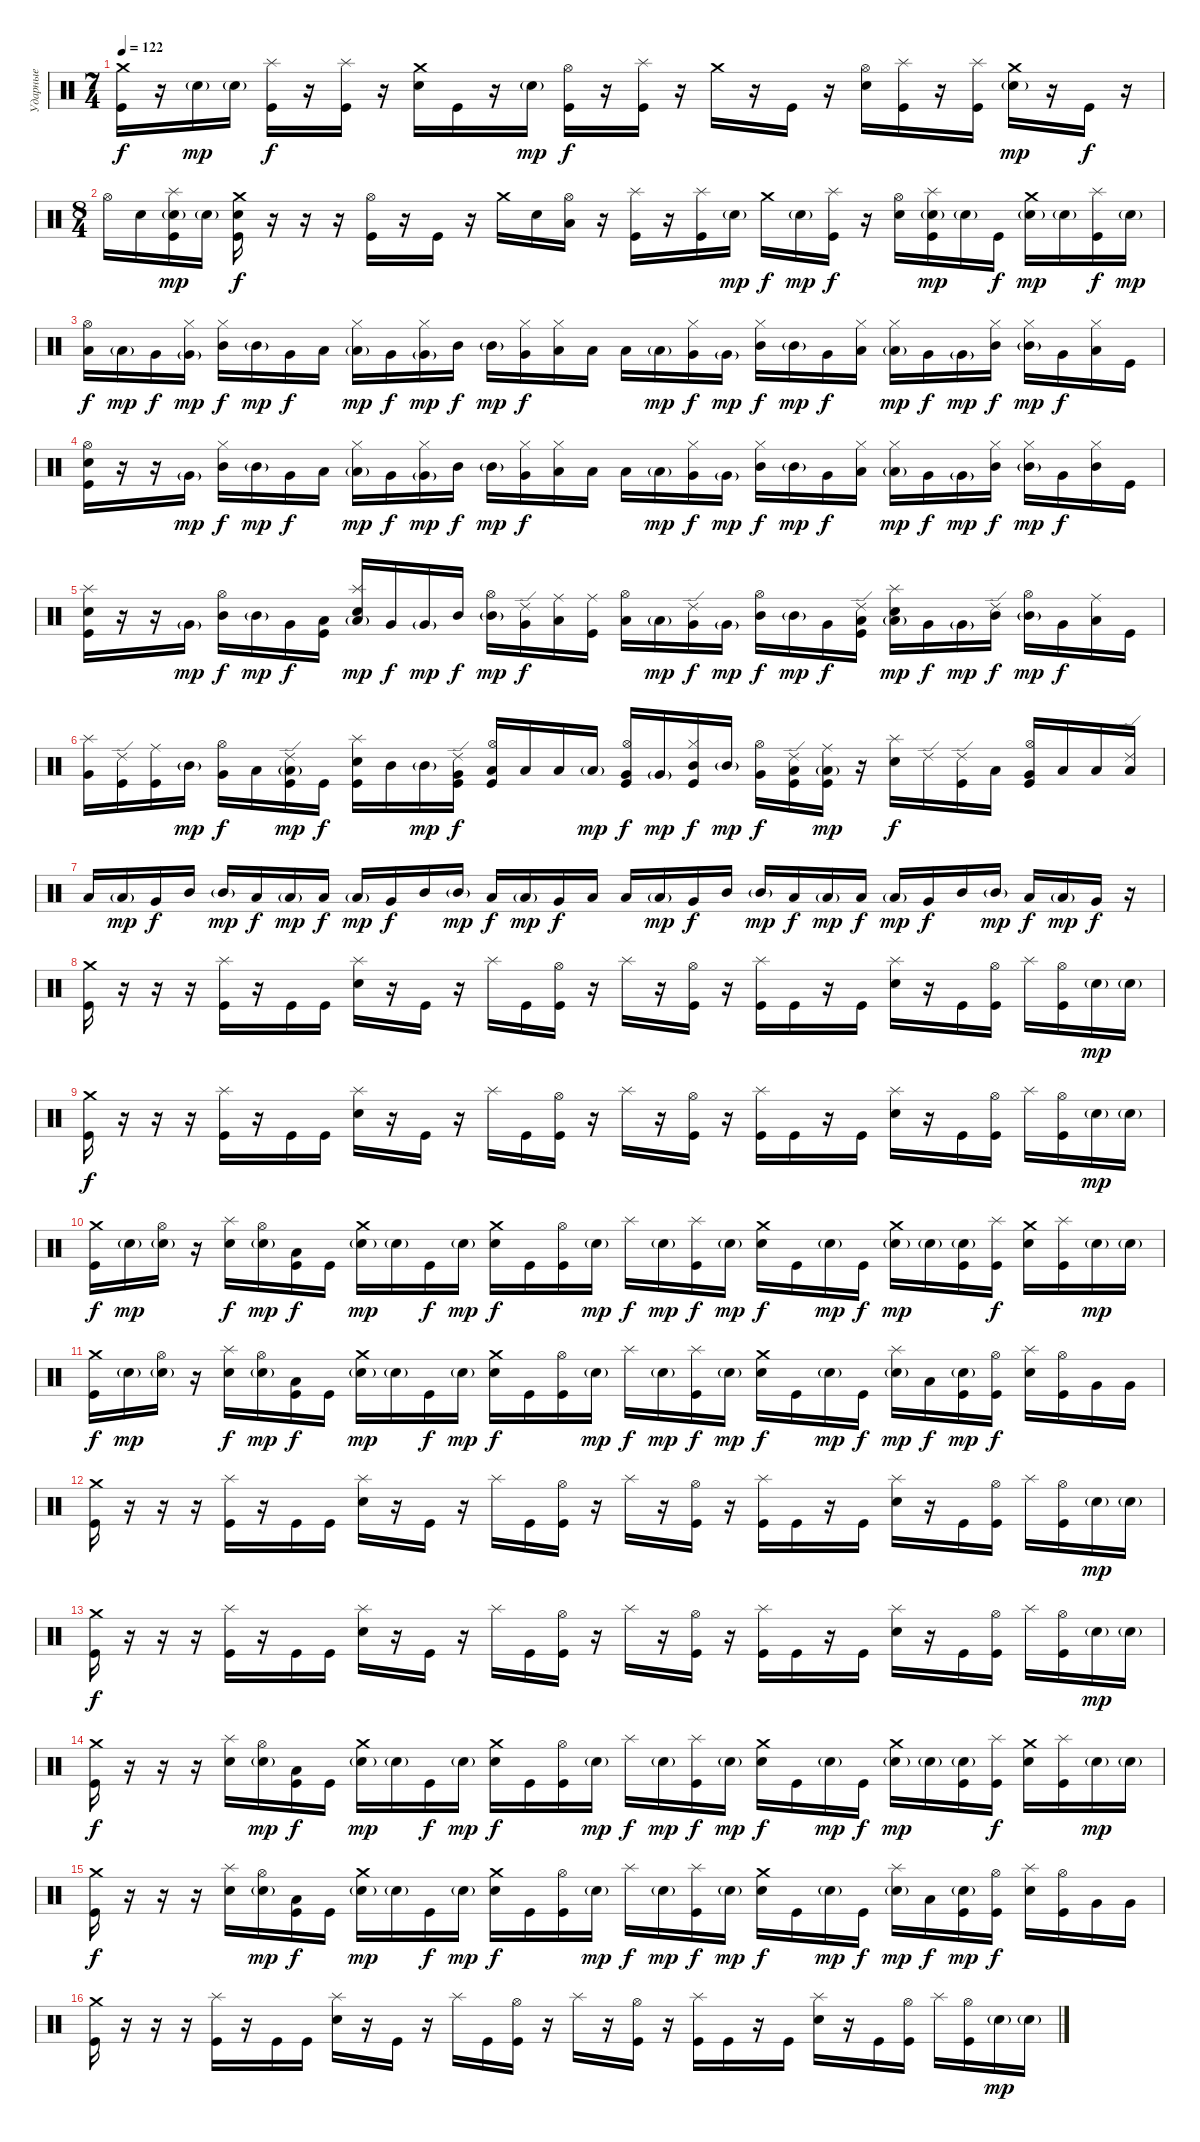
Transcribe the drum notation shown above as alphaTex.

\track ("Ударные" "Ударные") {instrument percussion}
\staff {score}
\articulation defaults
\ts (7 4)
\tempo 122
\clef neutral
\ks c
("Crash medium (hit)" "Kick (hit)").16{dy f} r.16 "Electric Snare (hit)"{g}.16{dy mp} "Electric Snare (hit)"{g}.16 ("Splash (hit)" "Kick (hit)").16{dy f} r.16 ("Splash (hit)" "Kick (hit)").16 r.16 ("Crash medium (hit)" "Electric Snare (hit)").16 "Kick (hit)".16 r.16 "Electric Snare (hit)"{g}.16{dy mp} ("Hi-Hat (open)" "Kick (hit)").16{dy f} r.16 ("Splash (hit)" "Kick (hit)").16 r.16 "Crash medium (hit)".16 r.16 "Kick (hit)".16 r.16 ("Hi-Hat (open)" "Electric Snare (hit)").16 ("Splash (hit)" "Kick (hit)").16 r.16 ("Splash (hit)" "Kick (hit)").16 ("Crash medium (hit)" "Electric Snare (hit)"{g}).16{dy mp} r.16 "Kick (hit)".16{dy f} r.16 |
\ts (8 4)
"Hi-Hat (open)".16 "Electric Snare (hit)".16 ("Splash (hit)" "Electric Snare (hit)"{g} "Kick (hit)").16{dy mp} "Electric Snare (hit)"{g}.16 ("Crash medium (hit)" "Electric Snare (hit)" "Kick (hit)").16{dy f} r.16 r.16 r.16 ("Hi-Hat (open)" "Kick (hit)").16 r.16 "Kick (hit)".16 r.16 "Crash medium (hit)".16 "Electric Snare (hit)".16 ("Hi-Hat (open)" "Low Tom (hit)").16 r.16 ("Splash (hit)" "Kick (hit)").16 r.16 ("Splash (hit)" "Kick (hit)").16 "Electric Snare (hit)"{g}.16{dy mp} "Crash medium (hit)".16{dy f} "Electric Snare (hit)"{g}.16{dy mp} ("Splash (hit)" "Kick (hit)").16{dy f} r.16 ("Hi-Hat (open)" "Electric Snare (hit)").16 ("Splash (hit)" "Electric Snare (hit)"{g} "Kick (hit)").16{dy mp} "Electric Snare (hit)"{g}.16 "Kick (hit)".16{dy f} ("Crash medium (hit)" "Electric Snare (hit)"{g}).16{dy mp} "Electric Snare (hit)"{g}.16 ("Splash (hit)" "Kick (hit)").16{dy f} "Electric Snare (hit)"{g}.16{dy mp} |
("Hi-Hat (open)" "Low Tom (hit)").16{dy f} "Low Tom (hit)"{g}.16{dy mp} "Very Low Tom (hit)".16{dy f} ("Hi-Hat (closed)" "Very Low Tom (hit)"{g}).16{dy mp} ("Hi-Hat (closed)" "Mid Tom (hit)").16{dy f} "Mid Tom (hit)"{g}.16{dy mp} "Very Low Tom (hit)".16{dy f} "Low Tom (hit)".16 ("Hi-Hat (closed)" "Low Tom (hit)"{g}).16{dy mp} "Very Low Tom (hit)".16{dy f} ("Hi-Hat (closed)" "Very Low Tom (hit)"{g}).16{dy mp} "Mid Tom (hit)".16{dy f} "Mid Tom (hit)"{g}.16{dy mp} ("Hi-Hat (closed)" "Very Low Tom (hit)").16{dy f} ("Hi-Hat (closed)" "Low Floor Tom (hit)").16 "Low Floor Tom (hit)".16 "Low Tom (hit)".16 "Low Tom (hit)"{g}.16{dy mp} ("Hi-Hat (closed)" "Very Low Tom (hit)").16{dy f} "Very Low Tom (hit)"{g}.16{dy mp} ("Hi-Hat (closed)" "Mid Tom (hit)").16{dy f} "Mid Tom (hit)"{g}.16{dy mp} "Very Low Tom (hit)".16{dy f} ("Hi-Hat (closed)" "Low Tom (hit)").16 ("Hi-Hat (closed)" "Low Tom (hit)"{g}).16{dy mp} "Very Low Tom (hit)".16{dy f} "Very Low Tom (hit)"{g}.16{dy mp} ("Hi-Hat (closed)" "Mid Tom (hit)").16{dy f} ("Hi-Hat (closed)" "Mid Tom (hit)"{g}).16{dy mp} "Very Low Tom (hit)".16{dy f} ("Hi-Hat (closed)" "Low Floor Tom (hit)").16 "Kick (hit)".16 |
("Hi-Hat (open)" "Electric Snare (hit)" "Kick (hit)").16 r.16 r.16 "Very Low Tom (hit)"{g}.16{dy mp} ("Hi-Hat (closed)" "Mid Tom (hit)").16{dy f} "Mid Tom (hit)"{g}.16{dy mp} "Very Low Tom (hit)".16{dy f} "Low Tom (hit)".16 ("Hi-Hat (closed)" "Low Tom (hit)"{g}).16{dy mp} "Very Low Tom (hit)".16{dy f} ("Hi-Hat (closed)" "Very Low Tom (hit)"{g}).16{dy mp} "Mid Tom (hit)".16{dy f} "Mid Tom (hit)"{g}.16{dy mp} ("Hi-Hat (closed)" "Very Low Tom (hit)").16{dy f} ("Hi-Hat (closed)" "Low Floor Tom (hit)").16 "Low Floor Tom (hit)".16 "Low Tom (hit)".16 "Low Tom (hit)"{g}.16{dy mp} ("Hi-Hat (closed)" "Very Low Tom (hit)").16{dy f} "Very Low Tom (hit)"{g}.16{dy mp} ("Hi-Hat (closed)" "Mid Tom (hit)").16{dy f} "Mid Tom (hit)"{g}.16{dy mp} "Very Low Tom (hit)".16{dy f} ("Hi-Hat (closed)" "Low Tom (hit)").16 ("Hi-Hat (closed)" "Low Tom (hit)"{g}).16{dy mp} "Very Low Tom (hit)".16{dy f} "Very Low Tom (hit)"{g}.16{dy mp} ("Hi-Hat (closed)" "Mid Tom (hit)").16{dy f} ("Hi-Hat (closed)" "Mid Tom (hit)"{g}).16{dy mp} "Very Low Tom (hit)".16{dy f} ("Hi-Hat (closed)" "Mid Tom (hit)").16 "Kick (hit)".16 |
("Splash (hit)" "Electric Snare (hit)" "Kick (hit)").16 r.16 r.16 "Very Low Tom (hit)"{g}.16{dy mp} ("Hi-Hat (open)" "Mid Tom (hit)").16{dy f} "Mid Tom (hit)"{g}.16{dy mp} "Very Low Tom (hit)".16{dy f} ("Low Tom (hit)" "Kick (hit)").16 ("Splash (hit)" "Low Tom (hit)"{g} "Electric Snare (hit)").16{dy mp} "Very Low Tom (hit)".16{dy f} "Very Low Tom (hit)"{g}.16{dy mp} "Mid Tom (hit)".16{dy f} ("Hi-Hat (open)" "Mid Tom (hit)"{g}).16{dy mp} ("Ride (edge) 2" "Very Low Tom (hit)").16{dy f} ("Ride (middle)" "Low Floor Tom (hit)").16 ("Ride (middle)" "Kick (hit)").16 ("Hi-Hat (open)" "Low Tom (hit)").16 "Low Tom (hit)"{g}.16{dy mp} ("Ride (edge) 2" "Very Low Tom (hit)").16{dy f} "Very Low Tom (hit)"{g}.16{dy mp} ("Hi-Hat (open)" "Mid Tom (hit)").16{dy f} "Mid Tom (hit)"{g}.16{dy mp} "Very Low Tom (hit)".16{dy f} ("Ride (edge) 2" "Low Tom (hit)" "Kick (hit)").16 ("Splash (hit)" "Low Tom (hit)"{g} "Electric Snare (hit)").16{dy mp} "Very Low Tom (hit)".16{dy f} "Very Low Tom (hit)"{g}.16{dy mp} ("Ride (edge) 2" "Mid Tom (hit)").16{dy f} ("Hi-Hat (open)" "Mid Tom (hit)"{g}).16{dy mp} "Very Low Tom (hit)".16{dy f} ("Ride (middle)" "Low Floor Tom (hit)").16 "Kick (hit)".16 |
("Splash (hit)" "Very Low Tom (hit)").16 ("Ride (edge) 2" "Kick (hit)").16 ("Ride (middle)" "Kick (hit)").16 "Mid Tom (hit)"{g}.16{dy mp} ("Hi-Hat (open)" "Very Low Tom (hit)").16{dy f} "Low Tom (hit)".16 ("Ride (edge) 2" "Low Tom (hit)"{g} "Kick (hit)").16{dy mp} "Kick (hit)".16{dy f} ("Splash (hit)" "Electric Snare (hit)" "Kick (hit)").16 "Mid Tom (hit)".16 "Mid Tom (hit)"{g}.16{dy mp} ("Ride (edge) 2" "Very Low Tom (hit)" "Kick (hit)").16{dy f} ("Hi-Hat (open)" "Low Floor Tom (hit)" "Kick (hit)").16 "Low Floor Tom (hit)".16 "Low Tom (hit)".16 "Low Tom (hit)"{g}.16{dy mp} ("Hi-Hat (open)" "Very Low Tom (hit)" "Kick (hit)").16{dy f} "Very Low Tom (hit)"{g}.16{dy mp} ("Hi-Hat (closed)" "Mid Tom (hit)" "Kick (hit)").16{dy f} "Mid Tom (hit)"{g}.16{dy mp} ("Hi-Hat (open)" "Very Low Tom (hit)").16{dy f} ("Ride (edge) 2" "Low Tom (hit)" "Kick (hit)").16 ("Ride (middle)" "Low Tom (hit)"{g} "Kick (hit)").16{dy mp} r.16 ("Splash (hit)" "Electric Snare (hit)").16{dy f} "Ride (edge) 2".16 ("Ride (edge) 2" "Kick (hit)").16 "Low Tom (hit)".16 ("Hi-Hat (open)" "Very Low Tom (hit)" "Kick (hit)").16 "Low Floor Tom (hit)".16 "Low Floor Tom (hit)".16 ("Ride (edge) 2" "Low Tom (hit)").16 |
"Low Tom (hit)".16 "Low Tom (hit)"{g}.16{dy mp} "Very Low Tom (hit)".16{dy f} "Mid Tom (hit)".16 "Mid Tom (hit)"{g}.16{dy mp} "Low Tom (hit)".16{dy f} "Low Tom (hit)"{g}.16{dy mp} "Low Tom (hit)".16{dy f} "Low Tom (hit)"{g}.16{dy mp} "Very Low Tom (hit)".16{dy f} "Mid Tom (hit)".16 "Mid Tom (hit)"{g}.16{dy mp} "Low Tom (hit)".16{dy f} "Low Tom (hit)"{g}.16{dy mp} "Very Low Tom (hit)".16{dy f} "Low Floor Tom (hit)".16 "Low Tom (hit)".16 "Low Tom (hit)"{g}.16{dy mp} "Very Low Tom (hit)".16{dy f} "Mid Tom (hit)".16 "Mid Tom (hit)"{g}.16{dy mp} "Low Tom (hit)".16{dy f} "Low Tom (hit)"{g}.16{dy mp} "Low Tom (hit)".16{dy f} "Low Tom (hit)"{g}.16{dy mp} "Very Low Tom (hit)".16{dy f} "Mid Tom (hit)".16 "Mid Tom (hit)"{g}.16{dy mp} "Low Tom (hit)".16{dy f} "Low Tom (hit)"{g}.16{dy mp} "Very Low Tom (hit)".16{dy f} r.16 |
("Crash medium (hit)" "Kick (hit)").16 r.16 r.16 r.16 ("Splash (hit)" "Kick (hit)").16 r.16 "Kick (hit)".16 "Kick (hit)".16 ("Splash (hit)" "Electric Snare (hit)").16 r.16 "Kick (hit)".16 r.16 "Splash (hit)".16 "Kick (hit)".16 ("Hi-Hat (open)" "Kick (hit)").16 r.16 "Splash (hit)".16 r.16 ("Hi-Hat (open)" "Kick (hit)").16 r.16 ("Splash (hit)" "Kick (hit)").16 "Kick (hit)".16 r.16 "Kick (hit)".16 ("Splash (hit)" "Electric Snare (hit)").16 r.16 "Kick (hit)".16 ("Hi-Hat (open)" "Kick (hit)").16 "Splash (hit)".16 ("Hi-Hat (open)" "Kick (hit)").16 "Electric Snare (hit)"{g}.16{dy mp} "Electric Snare (hit)"{g}.16 |
("Crash medium (hit)" "Kick (hit)").16{dy f} r.16 r.16 r.16 ("Splash (hit)" "Kick (hit)").16 r.16 "Kick (hit)".16 "Kick (hit)".16 ("Splash (hit)" "Electric Snare (hit)").16 r.16 "Kick (hit)".16 r.16 "Splash (hit)".16 "Kick (hit)".16 ("Hi-Hat (open)" "Kick (hit)").16 r.16 "Splash (hit)".16 r.16 ("Hi-Hat (open)" "Kick (hit)").16 r.16 ("Splash (hit)" "Kick (hit)").16 "Kick (hit)".16 r.16 "Kick (hit)".16 ("Splash (hit)" "Electric Snare (hit)").16 r.16 "Kick (hit)".16 ("Hi-Hat (open)" "Kick (hit)").16 "Splash (hit)".16 ("Hi-Hat (open)" "Kick (hit)").16 "Electric Snare (hit)"{g}.16{dy mp} "Electric Snare (hit)"{g}.16 |
("Crash medium (hit)" "Kick (hit)").16{dy f} "Electric Snare (hit)"{g}.16{dy mp} ("Hi-Hat (open)" "Electric Snare (hit)"{g}).16 r.16 ("Splash (hit)" "Electric Snare (hit)").16{dy f} ("Hi-Hat (open)" "Electric Snare (hit)"{g}).16{dy mp} ("Low Tom (hit)" "Kick (hit)").16{dy f} "Kick (hit)".16 ("Crash medium (hit)" "Electric Snare (hit)"{g}).16{dy mp} "Electric Snare (hit)"{g}.16 "Kick (hit)".16{dy f} "Electric Snare (hit)"{g}.16{dy mp} ("Crash medium (hit)" "Electric Snare (hit)").16{dy f} "Kick (hit)".16 ("Hi-Hat (open)" "Kick (hit)").16 "Electric Snare (hit)"{g}.16{dy mp} "Splash (hit)".16{dy f} "Electric Snare (hit)"{g}.16{dy mp} ("Splash (hit)" "Kick (hit)").16{dy f} "Electric Snare (hit)"{g}.16{dy mp} ("Crash medium (hit)" "Electric Snare (hit)").16{dy f} "Kick (hit)".16 "Electric Snare (hit)"{g}.16{dy mp} "Kick (hit)".16{dy f} ("Crash medium (hit)" "Electric Snare (hit)"{g}).16{dy mp} "Electric Snare (hit)"{g}.16 ("Electric Snare (hit)"{g} "Kick (hit)").16 ("Splash (hit)" "Kick (hit)").16{dy f} ("Crash medium (hit)" "Electric Snare (hit)").16 ("Splash (hit)" "Kick (hit)").16 "Electric Snare (hit)"{g}.16{dy mp} "Electric Snare (hit)"{g}.16 |
("Crash medium (hit)" "Kick (hit)").16{dy f} "Electric Snare (hit)"{g}.16{dy mp} ("Hi-Hat (open)" "Electric Snare (hit)"{g}).16 r.16 ("Splash (hit)" "Electric Snare (hit)").16{dy f} ("Hi-Hat (open)" "Electric Snare (hit)"{g}).16{dy mp} ("Low Tom (hit)" "Kick (hit)").16{dy f} "Kick (hit)".16 ("Crash medium (hit)" "Electric Snare (hit)"{g}).16{dy mp} "Electric Snare (hit)"{g}.16 "Kick (hit)".16{dy f} "Electric Snare (hit)"{g}.16{dy mp} ("Crash medium (hit)" "Electric Snare (hit)").16{dy f} "Kick (hit)".16 ("Hi-Hat (open)" "Kick (hit)").16 "Electric Snare (hit)"{g}.16{dy mp} "Splash (hit)".16{dy f} "Electric Snare (hit)"{g}.16{dy mp} ("Splash (hit)" "Kick (hit)").16{dy f} "Electric Snare (hit)"{g}.16{dy mp} ("Crash medium (hit)" "Electric Snare (hit)").16{dy f} "Kick (hit)".16 "Electric Snare (hit)"{g}.16{dy mp} "Kick (hit)".16{dy f} ("Splash (hit)" "Electric Snare (hit)"{g}).16{dy mp} "Low Tom (hit)".16{dy f} ("Electric Snare (hit)"{g} "Kick (hit)").16{dy mp} ("Hi-Hat (open)" "Kick (hit)").16{dy f} ("Splash (hit)" "Electric Snare (hit)").16 ("Hi-Hat (open)" "Kick (hit)").16 "Very Low Tom (hit)".16 "Very Low Tom (hit)".16 |
("Crash medium (hit)" "Kick (hit)").16 r.16 r.16 r.16 ("Splash (hit)" "Kick (hit)").16 r.16 "Kick (hit)".16 "Kick (hit)".16 ("Splash (hit)" "Electric Snare (hit)").16 r.16 "Kick (hit)".16 r.16 "Splash (hit)".16 "Kick (hit)".16 ("Hi-Hat (open)" "Kick (hit)").16 r.16 "Splash (hit)".16 r.16 ("Hi-Hat (open)" "Kick (hit)").16 r.16 ("Splash (hit)" "Kick (hit)").16 "Kick (hit)".16 r.16 "Kick (hit)".16 ("Splash (hit)" "Electric Snare (hit)").16 r.16 "Kick (hit)".16 ("Hi-Hat (open)" "Kick (hit)").16 "Splash (hit)".16 ("Hi-Hat (open)" "Kick (hit)").16 "Electric Snare (hit)"{g}.16{dy mp} "Electric Snare (hit)"{g}.16 |
("Crash medium (hit)" "Kick (hit)").16{dy f} r.16 r.16 r.16 ("Splash (hit)" "Kick (hit)").16 r.16 "Kick (hit)".16 "Kick (hit)".16 ("Splash (hit)" "Electric Snare (hit)").16 r.16 "Kick (hit)".16 r.16 "Splash (hit)".16 "Kick (hit)".16 ("Hi-Hat (open)" "Kick (hit)").16 r.16 "Splash (hit)".16 r.16 ("Hi-Hat (open)" "Kick (hit)").16 r.16 ("Splash (hit)" "Kick (hit)").16 "Kick (hit)".16 r.16 "Kick (hit)".16 ("Splash (hit)" "Electric Snare (hit)").16 r.16 "Kick (hit)".16 ("Hi-Hat (open)" "Kick (hit)").16 "Splash (hit)".16 ("Hi-Hat (open)" "Kick (hit)").16 "Electric Snare (hit)"{g}.16{dy mp} "Electric Snare (hit)"{g}.16 |
("Crash medium (hit)" "Kick (hit)").16{dy f} r.16 r.16 r.16 ("Splash (hit)" "Electric Snare (hit)").16 ("Hi-Hat (open)" "Electric Snare (hit)"{g}).16{dy mp} ("Low Tom (hit)" "Kick (hit)").16{dy f} "Kick (hit)".16 ("Crash medium (hit)" "Electric Snare (hit)"{g}).16{dy mp} "Electric Snare (hit)"{g}.16 "Kick (hit)".16{dy f} "Electric Snare (hit)"{g}.16{dy mp} ("Crash medium (hit)" "Electric Snare (hit)").16{dy f} "Kick (hit)".16 ("Hi-Hat (open)" "Kick (hit)").16 "Electric Snare (hit)"{g}.16{dy mp} "Splash (hit)".16{dy f} "Electric Snare (hit)"{g}.16{dy mp} ("Splash (hit)" "Kick (hit)").16{dy f} "Electric Snare (hit)"{g}.16{dy mp} ("Crash medium (hit)" "Electric Snare (hit)").16{dy f} "Kick (hit)".16 "Electric Snare (hit)"{g}.16{dy mp} "Kick (hit)".16{dy f} ("Crash medium (hit)" "Electric Snare (hit)"{g}).16{dy mp} "Electric Snare (hit)"{g}.16 ("Electric Snare (hit)"{g} "Kick (hit)").16 ("Splash (hit)" "Kick (hit)").16{dy f} ("Crash medium (hit)" "Electric Snare (hit)").16 ("Splash (hit)" "Kick (hit)").16 "Electric Snare (hit)"{g}.16{dy mp} "Electric Snare (hit)"{g}.16 |
("Crash medium (hit)" "Kick (hit)").16{dy f} r.16 r.16 r.16 ("Splash (hit)" "Electric Snare (hit)").16 ("Hi-Hat (open)" "Electric Snare (hit)"{g}).16{dy mp} ("Low Tom (hit)" "Kick (hit)").16{dy f} "Kick (hit)".16 ("Crash medium (hit)" "Electric Snare (hit)"{g}).16{dy mp} "Electric Snare (hit)"{g}.16 "Kick (hit)".16{dy f} "Electric Snare (hit)"{g}.16{dy mp} ("Crash medium (hit)" "Electric Snare (hit)").16{dy f} "Kick (hit)".16 ("Hi-Hat (open)" "Kick (hit)").16 "Electric Snare (hit)"{g}.16{dy mp} "Splash (hit)".16{dy f} "Electric Snare (hit)"{g}.16{dy mp} ("Splash (hit)" "Kick (hit)").16{dy f} "Electric Snare (hit)"{g}.16{dy mp} ("Crash medium (hit)" "Electric Snare (hit)").16{dy f} "Kick (hit)".16 "Electric Snare (hit)"{g}.16{dy mp} "Kick (hit)".16{dy f} ("Splash (hit)" "Electric Snare (hit)"{g}).16{dy mp} "Low Tom (hit)".16{dy f} ("Electric Snare (hit)"{g} "Kick (hit)").16{dy mp} ("Hi-Hat (open)" "Kick (hit)").16{dy f} ("Splash (hit)" "Electric Snare (hit)").16 ("Hi-Hat (open)" "Kick (hit)").16 "Very Low Tom (hit)".16 "Very Low Tom (hit)".16 |
("Crash medium (hit)" "Kick (hit)").16 r.16 r.16 r.16 ("Splash (hit)" "Kick (hit)").16 r.16 "Kick (hit)".16 "Kick (hit)".16 ("Splash (hit)" "Electric Snare (hit)").16 r.16 "Kick (hit)".16 r.16 "Splash (hit)".16 "Kick (hit)".16 ("Hi-Hat (open)" "Kick (hit)").16 r.16 "Splash (hit)".16 r.16 ("Hi-Hat (open)" "Kick (hit)").16 r.16 ("Splash (hit)" "Kick (hit)").16 "Kick (hit)".16 r.16 "Kick (hit)".16 ("Splash (hit)" "Electric Snare (hit)").16 r.16 "Kick (hit)".16 ("Hi-Hat (open)" "Kick (hit)").16 "Splash (hit)".16 ("Hi-Hat (open)" "Kick (hit)").16 "Electric Snare (hit)"{g}.16{dy mp} "Electric Snare (hit)"{g}.16
